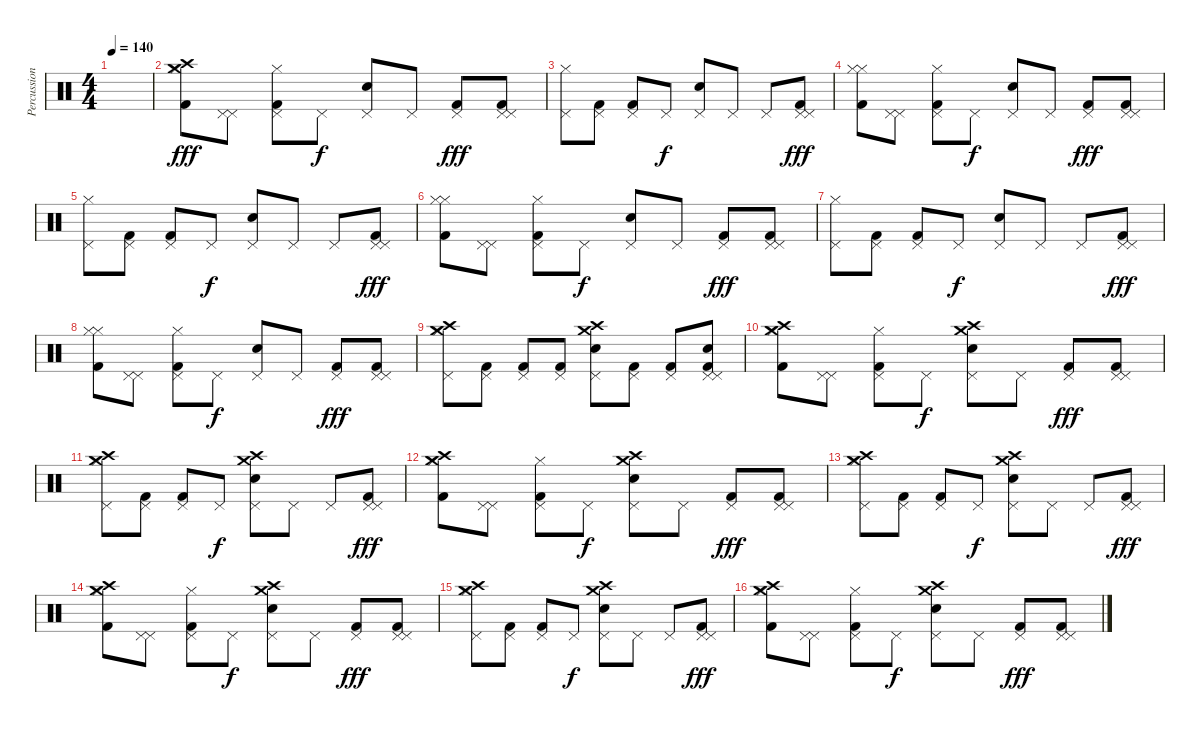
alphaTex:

\track ("Percussion" "Percussion") {instrument percussion}
\staff {score}
\articulation defaults
\ts (4 4)
\tempo 140
\clef neutral
\ks c
|
("Hi-Hat (closed)" "Crash medium (hit)" "Crash high (hit)" "Kick (hit) 2").8{dy fff} ("Pedal Hi-Hat (hit)" "Pedal Hi-Hat (hit)").8 ("Pedal Hi-Hat (hit)" "Hi-Hat (closed)" "Kick (hit) 2").8 "Pedal Hi-Hat (hit)".8{dy f} ("Pedal Hi-Hat (hit)" "Electric Snare (hit)").8 "Pedal Hi-Hat (hit)".8 ("Pedal Hi-Hat (hit)" "Kick (hit) 2").8{dy fff} ("Pedal Hi-Hat (hit)" "Pedal Hi-Hat (hit)" "Kick (hit) 2").8 |
("Pedal Hi-Hat (hit)" "Hi-Hat (closed)").8 ("Pedal Hi-Hat (hit)" "Kick (hit) 2").8 ("Pedal Hi-Hat (hit)" "Kick (hit) 2").8 "Pedal Hi-Hat (hit)".8{dy f} ("Pedal Hi-Hat (hit)" "Electric Snare (hit)").8 "Pedal Hi-Hat (hit)".8 "Pedal Hi-Hat (hit)".8 ("Pedal Hi-Hat (hit)" "Pedal Hi-Hat (hit)" "Kick (hit) 2").8{dy fff} |
("Hi-Hat (closed)" "Hi-Hat (closed)" "Kick (hit) 2").8 ("Pedal Hi-Hat (hit)" "Pedal Hi-Hat (hit)").8 ("Pedal Hi-Hat (hit)" "Hi-Hat (closed)" "Kick (hit) 2").8 "Pedal Hi-Hat (hit)".8{dy f} ("Pedal Hi-Hat (hit)" "Electric Snare (hit)").8 "Pedal Hi-Hat (hit)".8 ("Pedal Hi-Hat (hit)" "Kick (hit) 2").8{dy fff} ("Pedal Hi-Hat (hit)" "Pedal Hi-Hat (hit)" "Kick (hit) 2").8 |
("Pedal Hi-Hat (hit)" "Hi-Hat (closed)").8 ("Pedal Hi-Hat (hit)" "Kick (hit) 2").8 ("Pedal Hi-Hat (hit)" "Kick (hit) 2").8 "Pedal Hi-Hat (hit)".8{dy f} ("Pedal Hi-Hat (hit)" "Electric Snare (hit)").8 "Pedal Hi-Hat (hit)".8 "Pedal Hi-Hat (hit)".8 ("Pedal Hi-Hat (hit)" "Pedal Hi-Hat (hit)" "Kick (hit) 2").8{dy fff} |
("Hi-Hat (closed)" "Hi-Hat (closed)" "Kick (hit) 2").8 ("Pedal Hi-Hat (hit)" "Pedal Hi-Hat (hit)").8 ("Pedal Hi-Hat (hit)" "Hi-Hat (closed)" "Kick (hit) 2").8 "Pedal Hi-Hat (hit)".8{dy f} ("Pedal Hi-Hat (hit)" "Electric Snare (hit)").8 "Pedal Hi-Hat (hit)".8 ("Pedal Hi-Hat (hit)" "Kick (hit) 2").8{dy fff} ("Pedal Hi-Hat (hit)" "Pedal Hi-Hat (hit)" "Kick (hit) 2").8 |
("Pedal Hi-Hat (hit)" "Hi-Hat (closed)").8 ("Pedal Hi-Hat (hit)" "Kick (hit) 2").8 ("Pedal Hi-Hat (hit)" "Kick (hit) 2").8 "Pedal Hi-Hat (hit)".8{dy f} ("Pedal Hi-Hat (hit)" "Electric Snare (hit)").8 "Pedal Hi-Hat (hit)".8 "Pedal Hi-Hat (hit)".8 ("Pedal Hi-Hat (hit)" "Pedal Hi-Hat (hit)" "Kick (hit) 2").8{dy fff} |
("Hi-Hat (closed)" "Hi-Hat (closed)" "Kick (hit) 2").8 ("Pedal Hi-Hat (hit)" "Pedal Hi-Hat (hit)").8 ("Pedal Hi-Hat (hit)" "Hi-Hat (closed)" "Kick (hit) 2").8 "Pedal Hi-Hat (hit)".8{dy f} ("Pedal Hi-Hat (hit)" "Electric Snare (hit)").8 "Pedal Hi-Hat (hit)".8 ("Pedal Hi-Hat (hit)" "Kick (hit) 2").8{dy fff} ("Pedal Hi-Hat (hit)" "Pedal Hi-Hat (hit)" "Kick (hit) 2").8 |
("Pedal Hi-Hat (hit)" "Crash medium (hit)" "Hi-Hat (closed)" "Crash high (hit)").8 ("Pedal Hi-Hat (hit)" "Kick (hit) 2").8 ("Pedal Hi-Hat (hit)" "Kick (hit) 2").8 ("Pedal Hi-Hat (hit)" "Kick (hit) 2").8 ("Pedal Hi-Hat (hit)" "Crash medium (hit)" "Crash high (hit)" "Electric Snare (hit)").8 ("Pedal Hi-Hat (hit)" "Kick (hit) 2").8 ("Pedal Hi-Hat (hit)" "Kick (hit) 2").8 ("Pedal Hi-Hat (hit)" "Pedal Hi-Hat (hit)" "Electric Snare (hit)" "Kick (hit) 2").8 |
("Hi-Hat (closed)" "Crash medium (hit)" "Crash high (hit)" "Kick (hit) 2").8 ("Pedal Hi-Hat (hit)" "Pedal Hi-Hat (hit)").8 ("Pedal Hi-Hat (hit)" "Hi-Hat (closed)" "Kick (hit) 2").8 "Pedal Hi-Hat (hit)".8{dy f} ("Pedal Hi-Hat (hit)" "Crash medium (hit)" "Crash high (hit)" "Electric Snare (hit)").8 "Pedal Hi-Hat (hit)".8 ("Pedal Hi-Hat (hit)" "Kick (hit) 2").8{dy fff} ("Pedal Hi-Hat (hit)" "Pedal Hi-Hat (hit)" "Kick (hit) 2").8 |
("Pedal Hi-Hat (hit)" "Crash high (hit)" "Hi-Hat (closed)" "Crash medium (hit)").8 ("Pedal Hi-Hat (hit)" "Kick (hit) 2").8 ("Pedal Hi-Hat (hit)" "Kick (hit) 2").8 "Pedal Hi-Hat (hit)".8{dy f} ("Pedal Hi-Hat (hit)" "Crash high (hit)" "Crash medium (hit)" "Electric Snare (hit)").8 "Pedal Hi-Hat (hit)".8 "Pedal Hi-Hat (hit)".8 ("Pedal Hi-Hat (hit)" "Pedal Hi-Hat (hit)" "Kick (hit) 2").8{dy fff} |
("Hi-Hat (closed)" "Crash medium (hit)" "Crash high (hit)" "Kick (hit) 2").8 ("Pedal Hi-Hat (hit)" "Pedal Hi-Hat (hit)").8 ("Pedal Hi-Hat (hit)" "Hi-Hat (closed)" "Kick (hit) 2").8 "Pedal Hi-Hat (hit)".8{dy f} ("Pedal Hi-Hat (hit)" "Crash medium (hit)" "Crash high (hit)" "Electric Snare (hit)").8 "Pedal Hi-Hat (hit)".8 ("Pedal Hi-Hat (hit)" "Kick (hit) 2").8{dy fff} ("Pedal Hi-Hat (hit)" "Pedal Hi-Hat (hit)" "Kick (hit) 2").8 |
("Pedal Hi-Hat (hit)" "Crash high (hit)" "Hi-Hat (closed)" "Crash medium (hit)").8 ("Pedal Hi-Hat (hit)" "Kick (hit) 2").8 ("Pedal Hi-Hat (hit)" "Kick (hit) 2").8 "Pedal Hi-Hat (hit)".8{dy f} ("Pedal Hi-Hat (hit)" "Crash high (hit)" "Crash medium (hit)" "Electric Snare (hit)").8 "Pedal Hi-Hat (hit)".8 "Pedal Hi-Hat (hit)".8 ("Pedal Hi-Hat (hit)" "Pedal Hi-Hat (hit)" "Kick (hit) 2").8{dy fff} |
("Hi-Hat (closed)" "Crash medium (hit)" "Crash high (hit)" "Kick (hit) 2").8 ("Pedal Hi-Hat (hit)" "Pedal Hi-Hat (hit)").8 ("Pedal Hi-Hat (hit)" "Hi-Hat (closed)" "Kick (hit) 2").8 "Pedal Hi-Hat (hit)".8{dy f} ("Pedal Hi-Hat (hit)" "Crash medium (hit)" "Crash high (hit)" "Electric Snare (hit)").8 "Pedal Hi-Hat (hit)".8 ("Pedal Hi-Hat (hit)" "Kick (hit) 2").8{dy fff} ("Pedal Hi-Hat (hit)" "Pedal Hi-Hat (hit)" "Kick (hit) 2").8 |
("Pedal Hi-Hat (hit)" "Crash high (hit)" "Hi-Hat (closed)" "Crash medium (hit)").8 ("Pedal Hi-Hat (hit)" "Kick (hit) 2").8 ("Pedal Hi-Hat (hit)" "Kick (hit) 2").8 "Pedal Hi-Hat (hit)".8{dy f} ("Pedal Hi-Hat (hit)" "Crash high (hit)" "Crash medium (hit)" "Electric Snare (hit)").8 "Pedal Hi-Hat (hit)".8 "Pedal Hi-Hat (hit)".8 ("Pedal Hi-Hat (hit)" "Pedal Hi-Hat (hit)" "Kick (hit) 2").8{dy fff} |
("Hi-Hat (closed)" "Crash medium (hit)" "Crash high (hit)" "Kick (hit) 2").8 ("Pedal Hi-Hat (hit)" "Pedal Hi-Hat (hit)").8 ("Pedal Hi-Hat (hit)" "Hi-Hat (closed)" "Kick (hit) 2").8 "Pedal Hi-Hat (hit)".8{dy f} ("Pedal Hi-Hat (hit)" "Crash medium (hit)" "Crash high (hit)" "Electric Snare (hit)").8 "Pedal Hi-Hat (hit)".8 ("Pedal Hi-Hat (hit)" "Kick (hit) 2").8{dy fff} ("Pedal Hi-Hat (hit)" "Pedal Hi-Hat (hit)" "Kick (hit) 2").8
